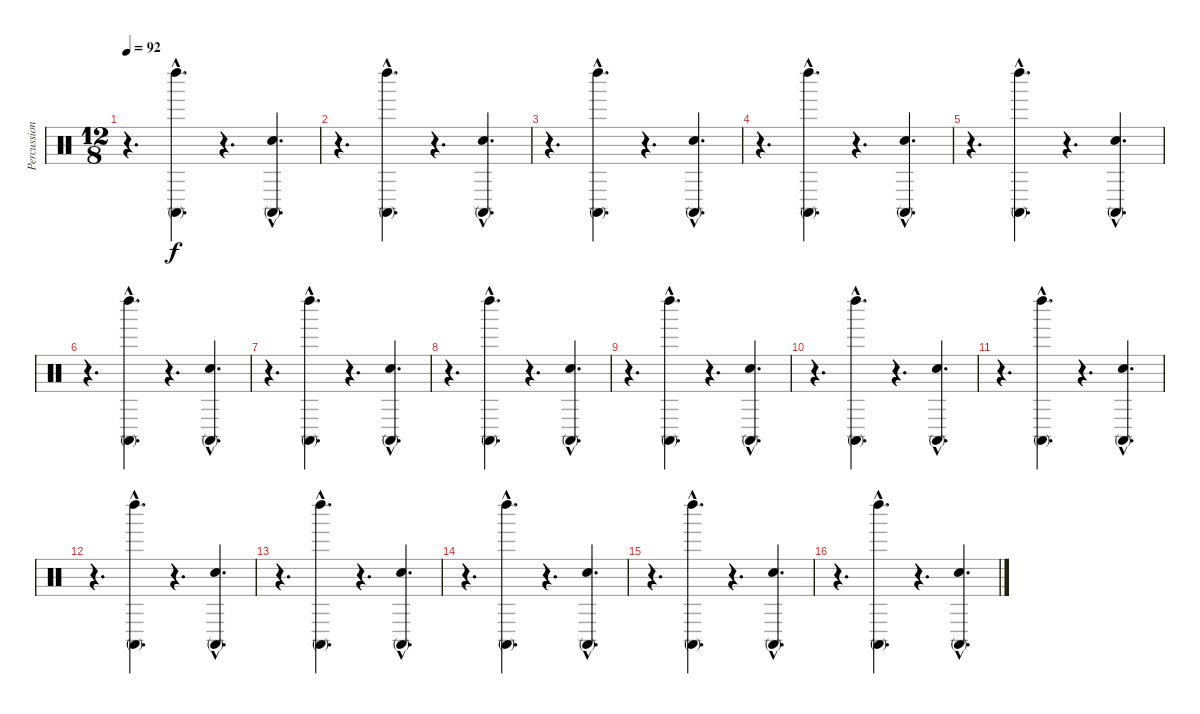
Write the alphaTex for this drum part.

\track ("Percussion" "Percussion") {instrument percussion}
\staff {score}
\articulation defaults
\ts (12 8)
\tempo 92
\clef neutral
\ks c
r.4{d dy f} ("Conga high (mute)"{hac} "Left Maraca (hit)"{hac}).4{d} r.4{d} ("Conga high (mute)"{hac} "Hand Clap (hit)"{hac}).4{d} |
r.4{d} ("Conga high (mute)"{hac} "Left Maraca (hit)"{hac}).4{d} r.4{d} ("Conga high (mute)"{hac} "Hand Clap (hit)"{hac}).4{d} |
r.4{d} ("Conga high (mute)"{hac} "Left Maraca (hit)"{hac}).4{d} r.4{d} ("Conga high (mute)"{hac} "Hand Clap (hit)"{hac}).4{d} |
r.4{d} ("Conga high (mute)"{hac} "Left Maraca (hit)"{hac}).4{d} r.4{d} ("Conga high (mute)"{hac} "Hand Clap (hit)"{hac}).4{d} |
r.4{d} ("Conga high (mute)"{hac} "Left Maraca (hit)"{hac}).4{d} r.4{d} ("Conga high (mute)"{hac} "Hand Clap (hit)"{hac}).4{d} |
r.4{d} ("Conga high (mute)"{hac} "Left Maraca (hit)"{hac}).4{d} r.4{d} ("Conga high (mute)"{hac} "Hand Clap (hit)"{hac}).4{d} |
r.4{d} ("Conga high (mute)"{hac} "Left Maraca (hit)"{hac}).4{d} r.4{d} ("Conga high (mute)"{hac} "Hand Clap (hit)"{hac}).4{d} |
r.4{d} ("Conga high (mute)"{hac} "Left Maraca (hit)"{hac}).4{d} r.4{d} ("Conga high (mute)"{hac} "Hand Clap (hit)"{hac}).4{d} |
r.4{d} ("Conga high (mute)"{hac} "Left Maraca (hit)"{hac}).4{d} r.4{d} ("Conga high (mute)"{hac} "Hand Clap (hit)"{hac}).4{d} |
r.4{d} ("Conga high (mute)"{hac} "Left Maraca (hit)"{hac}).4{d} r.4{d} ("Conga high (mute)"{hac} "Hand Clap (hit)"{hac}).4{d} |
r.4{d} ("Conga high (mute)"{hac} "Left Maraca (hit)"{hac}).4{d} r.4{d} ("Conga high (mute)"{hac} "Hand Clap (hit)"{hac}).4{d} |
r.4{d} ("Conga high (mute)"{hac} "Left Maraca (hit)"{hac}).4{d} r.4{d} ("Conga high (mute)"{hac} "Hand Clap (hit)"{hac}).4{d} |
r.4{d} ("Conga high (mute)"{hac} "Left Maraca (hit)"{hac}).4{d} r.4{d} ("Conga high (mute)"{hac} "Hand Clap (hit)"{hac}).4{d} |
r.4{d} ("Conga high (mute)"{hac} "Left Maraca (hit)"{hac}).4{d} r.4{d} ("Conga high (mute)"{hac} "Hand Clap (hit)"{hac}).4{d} |
r.4{d} ("Conga high (mute)"{hac} "Left Maraca (hit)"{hac}).4{d} r.4{d} ("Conga high (mute)"{hac} "Hand Clap (hit)"{hac}).4{d} |
r.4{d} ("Conga high (mute)"{hac} "Left Maraca (hit)"{hac}).4{d} r.4{d} ("Conga high (mute)"{hac} "Hand Clap (hit)"{hac}).4{d}
